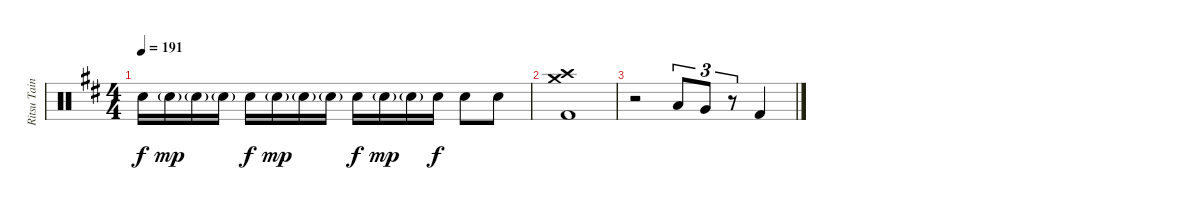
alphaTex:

\track ("Ritsu Tainaka" "Ritsu Tain") {instrument percussion}
\staff {score}
\articulation defaults
\ts (4 4)
\tempo 191
\clef neutral
\ks d "Electric Snare (hit)".16{dy f} "Electric Snare (hit)"{g}.16{dy mp} "Electric Snare (hit)"{g}.16 "Electric Snare (hit)"{g}.16 "Electric Snare (hit)".16{dy f} "Electric Snare (hit)"{g}.16{dy mp} "Electric Snare (hit)"{g}.16 "Electric Snare (hit)"{g}.16 "Electric Snare (hit)".16{dy f} "Electric Snare (hit)"{g}.16{dy mp} "Electric Snare (hit)"{g}.16 "Electric Snare (hit)".16{dy f} "Electric Snare (hit)".8 "Electric Snare (hit)".8
|
("Crash high (hit)" "Crash medium (hit)" "Kick (hit) 2").1 |
r.2 "Low Tom (hit)".8{tu (3 2)} "Very Low Tom (hit)".8{tu (3 2)} r.8{tu (3 2)} "Kick (hit) 2".4
